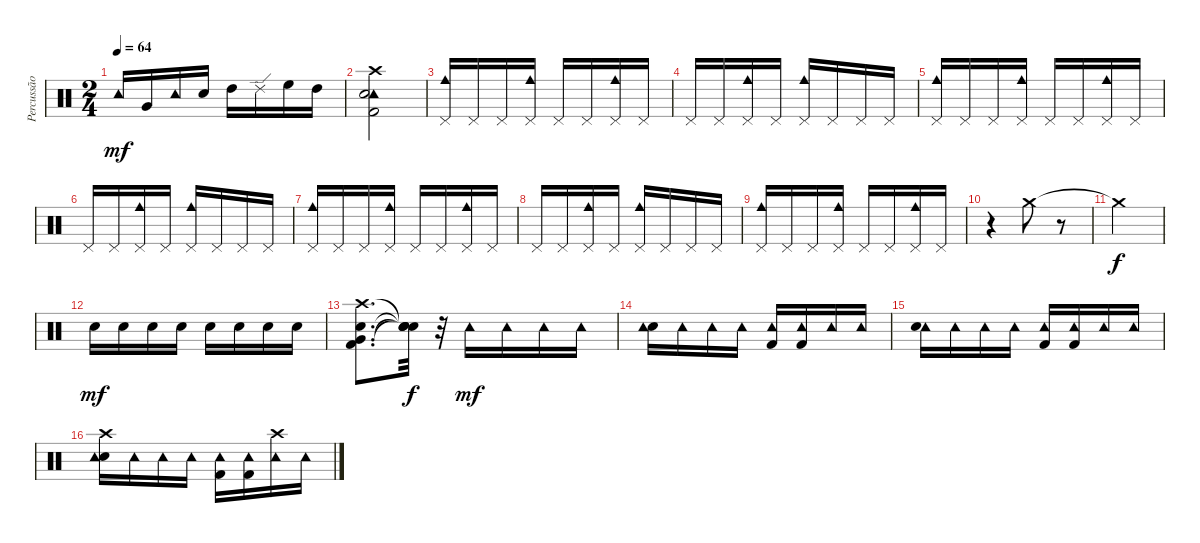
\track ("Percussão" "Percussão") {instrument percussion}
\staff {score}
\articulation defaults
\ts (2 4)
\tempo 64
\clef neutral
\ks c "Tambourine (hit)".16{dy mf} "Very Low Tom (hit)".16 "Tambourine (hit)".16 "Snare (hit) 2".16 "High Tom (hit)".16 "Ride (edge) 2".16 "High Floor Tom (hit)".16 "High Tom (hit)".16
|
("Kick (hit) 2" "Tambourine (hit)" "Crash high (hit)" "Snare (hit) 2").2 |
("Pedal Hi-Hat (hit)" "Cowbell medium (hit)").16 "Pedal Hi-Hat (hit)".16 "Pedal Hi-Hat (hit)".16 ("Pedal Hi-Hat (hit)" "Cowbell medium (hit)").16 "Pedal Hi-Hat (hit)".16 "Pedal Hi-Hat (hit)".16 ("Pedal Hi-Hat (hit)" "Cowbell medium (hit)").16 "Pedal Hi-Hat (hit)".16 |
"Pedal Hi-Hat (hit)".16 "Pedal Hi-Hat (hit)".16 ("Pedal Hi-Hat (hit)" "Cowbell medium (hit)").16 "Pedal Hi-Hat (hit)".16 ("Pedal Hi-Hat (hit)" "Cowbell medium (hit)").16 "Pedal Hi-Hat (hit)".16 "Pedal Hi-Hat (hit)".16 "Pedal Hi-Hat (hit)".16 |
("Pedal Hi-Hat (hit)" "Cowbell medium (hit)").16 "Pedal Hi-Hat (hit)".16 "Pedal Hi-Hat (hit)".16 ("Pedal Hi-Hat (hit)" "Cowbell medium (hit)").16 "Pedal Hi-Hat (hit)".16 "Pedal Hi-Hat (hit)".16 ("Pedal Hi-Hat (hit)" "Cowbell medium (hit)").16 "Pedal Hi-Hat (hit)".16 |
"Pedal Hi-Hat (hit)".16 "Pedal Hi-Hat (hit)".16 ("Pedal Hi-Hat (hit)" "Cowbell medium (hit)").16 "Pedal Hi-Hat (hit)".16 ("Pedal Hi-Hat (hit)" "Cowbell medium (hit)").16 "Pedal Hi-Hat (hit)".16 "Pedal Hi-Hat (hit)".16 "Pedal Hi-Hat (hit)".16 |
("Pedal Hi-Hat (hit)" "Cowbell medium (hit)").16 "Pedal Hi-Hat (hit)".16 "Pedal Hi-Hat (hit)".16 ("Pedal Hi-Hat (hit)" "Cowbell medium (hit)").16 "Pedal Hi-Hat (hit)".16 "Pedal Hi-Hat (hit)".16 ("Pedal Hi-Hat (hit)" "Cowbell medium (hit)").16 "Pedal Hi-Hat (hit)".16 |
"Pedal Hi-Hat (hit)".16 "Pedal Hi-Hat (hit)".16 ("Pedal Hi-Hat (hit)" "Cowbell medium (hit)").16 "Pedal Hi-Hat (hit)".16 ("Pedal Hi-Hat (hit)" "Cowbell medium (hit)").16 "Pedal Hi-Hat (hit)".16 "Pedal Hi-Hat (hit)".16 "Pedal Hi-Hat (hit)".16 |
("Pedal Hi-Hat (hit)" "Cowbell medium (hit)").16 "Pedal Hi-Hat (hit)".16 "Pedal Hi-Hat (hit)".16 ("Pedal Hi-Hat (hit)" "Cowbell medium (hit)").16 "Pedal Hi-Hat (hit)".16 "Pedal Hi-Hat (hit)".16 ("Pedal Hi-Hat (hit)" "Cowbell medium (hit)").16 "Pedal Hi-Hat (hit)".16 |
r.4 "Crash medium (hit)".8 r.8 |
"Crash medium (hit)"{t}.2{dy f} |
"Snare (hit) 2".16{dy mf} "Snare (hit) 2".16 "Snare (hit) 2".16 "Snare (hit) 2".16 "Snare (hit) 2".16 "Snare (hit) 2".16 "Snare (hit) 2".16 "Snare (hit) 2".16 |
("Crash high (hit)" "Very Low Tom (hit)" "Snare (hit) 2" "Kick (hit) 2").8{d} ("Snare (hit)"{t} "Snare (hit)"{t} "Snare (hit)"{t} "Snare (hit)"{t}).32{dy f} r.32 "Tambourine (hit)".16{dy mf} "Tambourine (hit)".16 "Tambourine (hit)".16 "Tambourine (hit)".16 |
("Snare (hit) 2" "Tambourine (hit)").16 "Tambourine (hit)".16 "Tambourine (hit)".16 "Tambourine (hit)".16 ("Tambourine (hit)" "Kick (hit) 2").16 ("Kick (hit) 2" "Tambourine (hit)").16 "Tambourine (hit)".16 "Tambourine (hit)".16 |
("Tambourine (hit)" "Snare (hit) 2").16 "Tambourine (hit)".16 "Tambourine (hit)".16 "Tambourine (hit)".16 ("Kick (hit) 2" "Tambourine (hit)").16 ("Tambourine (hit)" "Kick (hit) 2").16 "Tambourine (hit)".16 "Tambourine (hit)".16 |
("Crash high (hit)" "Snare (hit) 2" "Tambourine (hit)").16 "Tambourine (hit)".16 "Tambourine (hit)".16 "Tambourine (hit)".16 ("Tambourine (hit)" "Kick (hit) 2").16 ("Tambourine (hit)" "Kick (hit) 2").16 ("Crash high (hit)" "Tambourine (hit)").16 "Tambourine (hit)".16
